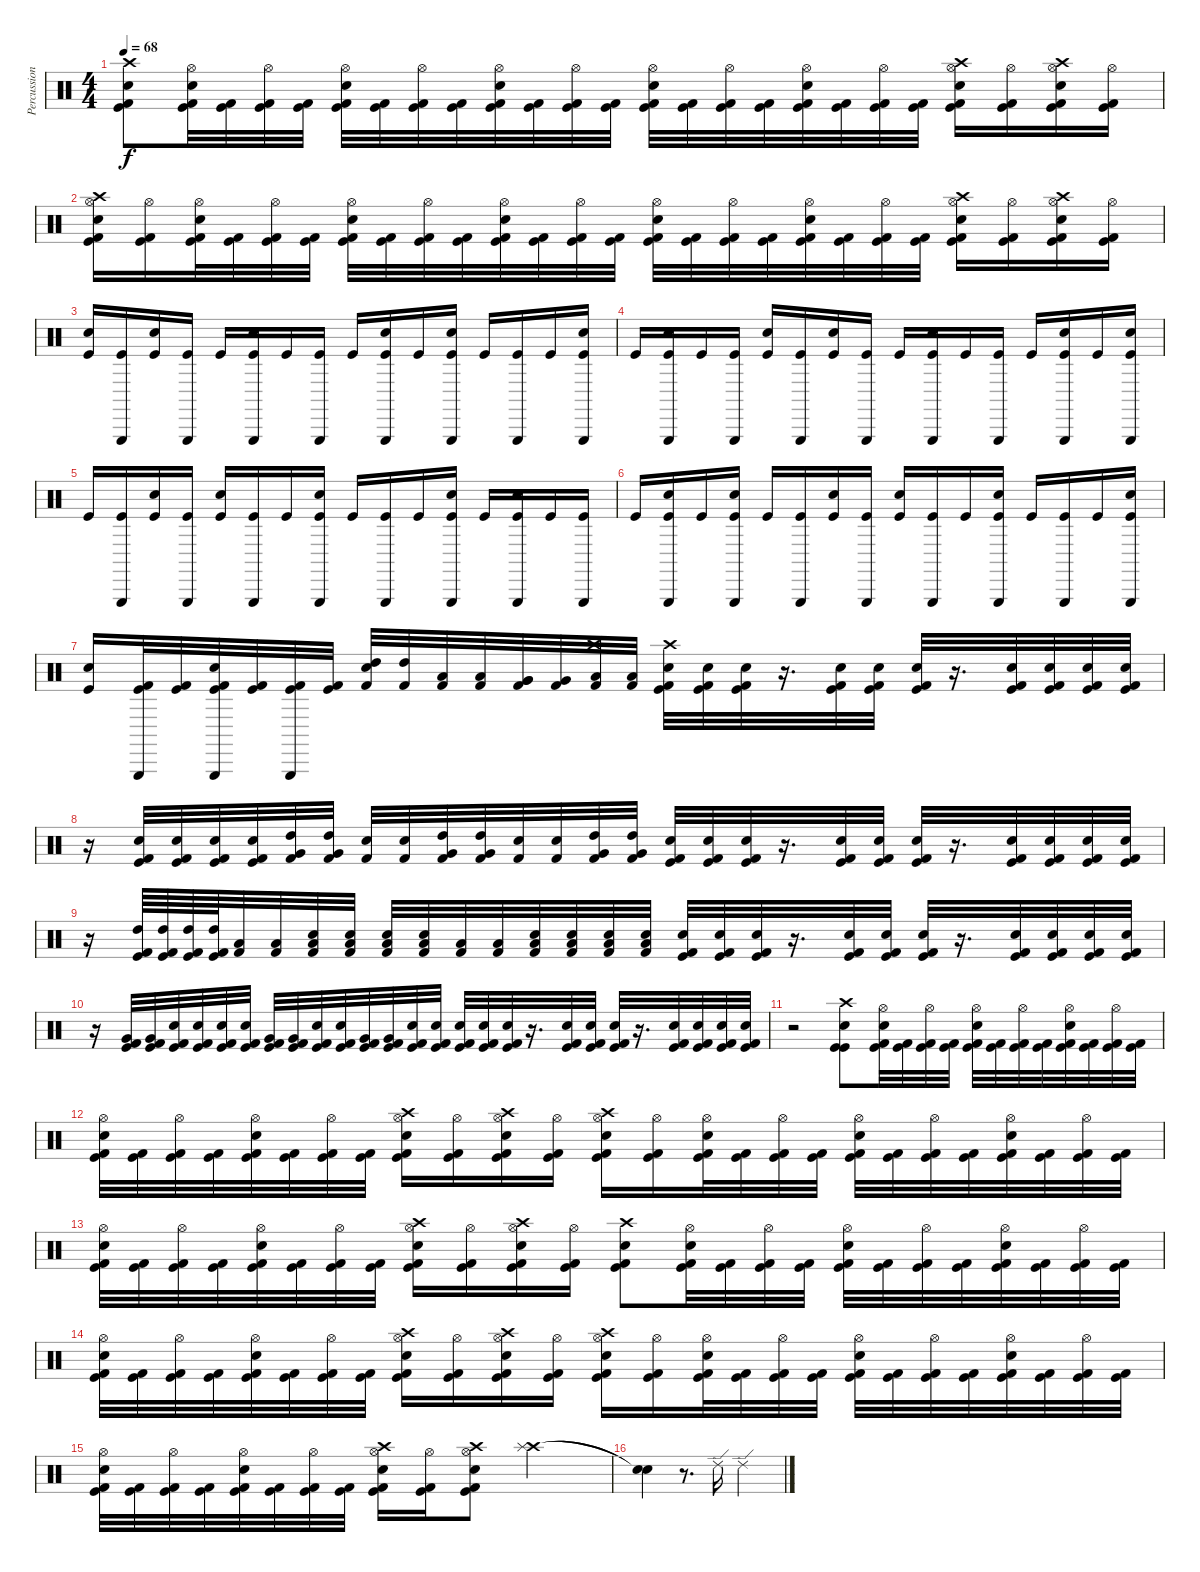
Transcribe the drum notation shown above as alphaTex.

\track ("Percussion" "Percussion") {instrument percussion}
\staff {score}
\articulation defaults
\ts (4 4)
\tempo 68
\clef neutral
\ks c
("Kick (hit)" "Kick (hit) 2" "Snare (hit) 2" "Crash high (hit)").8{dy f} ("Kick (hit)" "Kick (hit) 2" "Snare (hit) 2" "Hi-Hat (open)").32 ("Kick (hit)" "Kick (hit) 2").32 ("Kick (hit)" "Kick (hit) 2" "Hi-Hat (open)").32 ("Kick (hit)" "Kick (hit) 2").32 ("Kick (hit)" "Kick (hit) 2" "Snare (hit) 2" "Hi-Hat (open)").32 ("Kick (hit)" "Kick (hit) 2").32 ("Kick (hit)" "Kick (hit) 2" "Hi-Hat (open)").32 ("Kick (hit)" "Kick (hit) 2").32 ("Kick (hit)" "Kick (hit) 2" "Snare (hit) 2" "Hi-Hat (open)").32 ("Kick (hit)" "Kick (hit) 2").32 ("Kick (hit)" "Kick (hit) 2" "Hi-Hat (open)").32 ("Kick (hit)" "Kick (hit) 2").32 ("Kick (hit)" "Kick (hit) 2" "Snare (hit) 2" "Hi-Hat (open)").32 ("Kick (hit)" "Kick (hit) 2").32 ("Kick (hit)" "Kick (hit) 2" "Hi-Hat (open)").32 ("Kick (hit)" "Kick (hit) 2").32 ("Kick (hit)" "Kick (hit) 2" "Snare (hit) 2" "Hi-Hat (open)").32 ("Kick (hit)" "Kick (hit) 2").32 ("Kick (hit)" "Kick (hit) 2" "Hi-Hat (open)").32 ("Kick (hit)" "Kick (hit) 2").32 ("Kick (hit)" "Kick (hit) 2" "Snare (hit) 2" "Hi-Hat (open)" "Crash high (hit)").16 ("Kick (hit)" "Kick (hit) 2" "Hi-Hat (open)").16 ("Kick (hit)" "Kick (hit) 2" "Snare (hit) 2" "Hi-Hat (open)" "Crash high (hit)").16 ("Kick (hit)" "Kick (hit) 2" "Hi-Hat (open)").16 |
("Kick (hit)" "Kick (hit) 2" "Snare (hit) 2" "Hi-Hat (open)" "Crash high (hit)").16 ("Kick (hit)" "Kick (hit) 2" "Hi-Hat (open)").16 ("Kick (hit)" "Kick (hit) 2" "Snare (hit) 2" "Hi-Hat (open)").32 ("Kick (hit)" "Kick (hit) 2").32 ("Kick (hit)" "Kick (hit) 2" "Hi-Hat (open)").32 ("Kick (hit)" "Kick (hit) 2").32 ("Kick (hit)" "Kick (hit) 2" "Snare (hit) 2" "Hi-Hat (open)").32 ("Kick (hit)" "Kick (hit) 2").32 ("Kick (hit)" "Kick (hit) 2" "Hi-Hat (open)").32 ("Kick (hit)" "Kick (hit) 2").32 ("Kick (hit)" "Kick (hit) 2" "Snare (hit) 2" "Hi-Hat (open)").32 ("Kick (hit)" "Kick (hit) 2").32 ("Kick (hit)" "Kick (hit) 2" "Hi-Hat (open)").32 ("Kick (hit)" "Kick (hit) 2").32 ("Kick (hit)" "Kick (hit) 2" "Snare (hit) 2" "Hi-Hat (open)").32 ("Kick (hit)" "Kick (hit) 2").32 ("Kick (hit)" "Kick (hit) 2" "Hi-Hat (open)").32 ("Kick (hit)" "Kick (hit) 2").32 ("Kick (hit)" "Kick (hit) 2" "Snare (hit) 2" "Hi-Hat (open)").32 ("Kick (hit)" "Kick (hit) 2").32 ("Kick (hit)" "Kick (hit) 2" "Hi-Hat (open)").32 ("Kick (hit)" "Kick (hit) 2").32 ("Kick (hit)" "Kick (hit) 2" "Snare (hit) 2" "Hi-Hat (open)" "Crash high (hit)").16 ("Kick (hit)" "Kick (hit) 2" "Hi-Hat (open)").16 ("Kick (hit)" "Kick (hit) 2" "Snare (hit) 2" "Hi-Hat (open)" "Crash high (hit)").16 ("Kick (hit)" "Kick (hit) 2" "Hi-Hat (open)").16 |
\section ("" "")
("Kick (hit)" "Snare (hit) 2").16 ("Kick (hit)" "Triangle (hit)").16 ("Kick (hit)" "Snare (hit) 2").16 ("Kick (hit)" "Triangle (hit)").16 "Kick (hit)".16 ("Kick (hit)" "Snare (hit) 2" "Triangle (hit)").16 "Kick (hit)".16 ("Kick (hit)" "Triangle (hit)").16 "Kick (hit)".16 ("Kick (hit)" "Snare (hit) 2" "Triangle (hit)").16 "Kick (hit)".16 ("Kick (hit)" "Snare (hit) 2" "Triangle (hit)").16 "Kick (hit)".16 ("Kick (hit)" "Triangle (hit)").16 "Kick (hit)".16 ("Kick (hit)" "Snare (hit) 2" "Triangle (hit)").16 |
"Kick (hit)".16 ("Kick (hit)" "Snare (hit) 2" "Triangle (hit)").16 "Kick (hit)".16 ("Kick (hit)" "Triangle (hit)").16 ("Kick (hit)" "Snare (hit) 2").16 ("Kick (hit)" "Triangle (hit)").16 ("Kick (hit)" "Snare (hit) 2").16 ("Kick (hit)" "Triangle (hit)").16 "Kick (hit)".16 ("Kick (hit)" "Snare (hit) 2" "Triangle (hit)").16 "Kick (hit)".16 ("Kick (hit)" "Triangle (hit)").16 "Kick (hit)".16 ("Kick (hit)" "Snare (hit) 2" "Triangle (hit)").16 "Kick (hit)".16 ("Kick (hit)" "Snare (hit) 2" "Triangle (hit)").16 |
"Kick (hit)".16 ("Kick (hit)" "Triangle (hit)").16 ("Kick (hit)" "Snare (hit) 2").16 ("Kick (hit)" "Triangle (hit)").16 ("Kick (hit)" "Snare (hit) 2").16 ("Kick (hit)" "Triangle (hit)").16 "Kick (hit)".16 ("Kick (hit)" "Snare (hit) 2" "Triangle (hit)").16 "Kick (hit)".16 ("Kick (hit)" "Triangle (hit)").16 "Kick (hit)".16 ("Kick (hit)" "Snare (hit) 2" "Triangle (hit)").16 "Kick (hit)".16 ("Kick (hit)" "Snare (hit) 2" "Triangle (hit)").16 "Kick (hit)".16 ("Kick (hit)" "Triangle (hit)").16 |
"Kick (hit)".16 ("Kick (hit)" "Snare (hit) 2" "Triangle (hit)").16 "Kick (hit)".16 ("Kick (hit)" "Snare (hit) 2" "Triangle (hit)").16 "Kick (hit)".16 ("Kick (hit)" "Triangle (hit)").16 ("Kick (hit)" "Snare (hit) 2").16 ("Kick (hit)" "Triangle (hit)").16 ("Kick (hit)" "Snare (hit) 2").16 ("Kick (hit)" "Triangle (hit)").16 "Kick (hit)".16 ("Kick (hit)" "Snare (hit) 2" "Triangle (hit)").16 "Kick (hit)".16 ("Kick (hit)" "Triangle (hit)").16 "Kick (hit)".16 ("Kick (hit)" "Snare (hit) 2" "Triangle (hit)").16 |
("Kick (hit)" "Snare (hit) 2").16 ("Kick (hit)" "Kick (hit) 2" "Triangle (hit)").32 ("Kick (hit)" "Kick (hit) 2").32 ("Kick (hit)" "Kick (hit) 2" "Snare (hit) 2" "Triangle (hit)").32 ("Kick (hit)" "Kick (hit) 2").32 ("Kick (hit)" "Kick (hit) 2" "Triangle (hit)").32 ("Kick (hit)" "Kick (hit) 2").32 ("Kick (hit) 2" "Snare (hit) 2" "High Tom (hit)").32 ("Kick (hit) 2" "High Tom (hit)").32 ("Kick (hit) 2" "Low Tom (hit)").32 ("Kick (hit) 2" "Low Tom (hit)").32 ("Kick (hit) 2" "Very Low Tom (hit)" "Very Low Tom (hit)").32 ("Kick (hit) 2" "Very Low Tom (hit)").32 ("Kick (hit) 2" "Low Floor Tom (hit)" "Crash high (hit)").32 ("Kick (hit) 2" "Low Floor Tom (hit)").32 ("Kick (hit)" "Kick (hit) 2" "Snare (hit) 2" "Crash high (hit)").32 ("Kick (hit)" "Kick (hit) 2" "Snare (hit) 2").32 ("Kick (hit)" "Kick (hit) 2" "Snare (hit) 2").32 r.16{d} ("Kick (hit)" "Kick (hit) 2" "Snare (hit) 2").32 ("Kick (hit)" "Kick (hit) 2" "Snare (hit) 2").32 ("Kick (hit)" "Kick (hit) 2" "Snare (hit) 2").32 r.16{d} ("Kick (hit)" "Kick (hit) 2" "Snare (hit) 2").32 ("Kick (hit)" "Kick (hit) 2" "Snare (hit) 2").32 ("Kick (hit)" "Kick (hit) 2" "Snare (hit) 2").32 ("Kick (hit)" "Kick (hit) 2" "Snare (hit) 2").32 |
r.16 ("Kick (hit)" "Kick (hit) 2" "Snare (hit) 2").32 ("Kick (hit)" "Kick (hit) 2" "Snare (hit) 2").32 ("Kick (hit)" "Kick (hit) 2" "Snare (hit) 2").32 ("Kick (hit)" "Kick (hit) 2" "Snare (hit) 2").32 ("Kick (hit) 2" "Very Low Tom (hit)" "High Tom (hit)").32 ("Kick (hit) 2" "Very Low Tom (hit)" "High Tom (hit)").32 ("Kick (hit) 2" "Snare (hit) 2").32 ("Kick (hit) 2" "Snare (hit) 2").32 ("Kick (hit) 2" "Very Low Tom (hit)" "High Tom (hit)").32 ("Kick (hit) 2" "Very Low Tom (hit)" "High Tom (hit)").32 ("Kick (hit) 2" "Snare (hit) 2").32 ("Kick (hit) 2" "Snare (hit) 2").32 ("Kick (hit) 2" "Very Low Tom (hit)" "High Tom (hit)").32 ("Kick (hit) 2" "Very Low Tom (hit)" "High Tom (hit)").32 ("Kick (hit)" "Kick (hit) 2" "Snare (hit) 2").32 ("Kick (hit)" "Kick (hit) 2" "Snare (hit) 2").32 ("Kick (hit)" "Kick (hit) 2" "Snare (hit) 2").32 r.16{d} ("Kick (hit)" "Kick (hit) 2" "Snare (hit) 2").32 ("Kick (hit)" "Kick (hit) 2" "Snare (hit) 2").32 ("Kick (hit)" "Kick (hit) 2" "Snare (hit) 2").32 r.16{d} ("Kick (hit)" "Kick (hit) 2" "Snare (hit) 2").32 ("Kick (hit)" "Kick (hit) 2" "Snare (hit) 2").32 ("Kick (hit)" "Kick (hit) 2" "Snare (hit) 2").32 ("Kick (hit)" "Kick (hit) 2" "Snare (hit) 2").32 |
r.16 ("Kick (hit)" "Kick (hit) 2" "High Tom (hit)").64 ("Kick (hit)" "Kick (hit) 2" "High Tom (hit)").64 ("Kick (hit)" "Kick (hit) 2" "High Tom (hit)").64 ("Kick (hit)" "Kick (hit) 2" "High Tom (hit)").64 ("Kick (hit) 2" "Low Tom (hit)").32 ("Kick (hit) 2" "Low Tom (hit)").32 ("Kick (hit) 2" "Snare (hit) 2" "Low Tom (hit)").32 ("Kick (hit) 2" "Snare (hit) 2" "Low Tom (hit)").32 ("Kick (hit) 2" "Snare (hit) 2" "Low Tom (hit)").32 ("Kick (hit) 2" "Snare (hit) 2" "Low Tom (hit)").32 ("Kick (hit) 2" "Low Tom (hit)").32 ("Kick (hit) 2" "Low Tom (hit)").32 ("Kick (hit) 2" "Snare (hit) 2" "Low Tom (hit)").32 ("Kick (hit) 2" "Snare (hit) 2" "Low Tom (hit)").32 ("Kick (hit) 2" "Snare (hit) 2" "Low Tom (hit)").32 ("Kick (hit) 2" "Snare (hit) 2" "Low Tom (hit)").32 ("Kick (hit)" "Kick (hit) 2" "Snare (hit) 2").32 ("Kick (hit)" "Kick (hit) 2" "Snare (hit) 2").32 ("Kick (hit)" "Kick (hit) 2" "Snare (hit) 2").32 r.16{d} ("Kick (hit)" "Kick (hit) 2" "Snare (hit) 2").32 ("Kick (hit)" "Kick (hit) 2" "Snare (hit) 2").32 ("Kick (hit)" "Kick (hit) 2" "Snare (hit) 2").32 r.16{d} ("Kick (hit)" "Kick (hit) 2" "Snare (hit) 2").32 ("Kick (hit)" "Kick (hit) 2" "Snare (hit) 2").32 ("Kick (hit)" "Kick (hit) 2" "Snare (hit) 2").32 ("Kick (hit)" "Kick (hit) 2" "Snare (hit) 2").32 |
r.16 ("Kick (hit)" "Kick (hit) 2" "Very Low Tom (hit)").32 ("Kick (hit)" "Kick (hit) 2" "Very Low Tom (hit)").32 ("Kick (hit)" "Kick (hit) 2" "Snare (hit) 2").32 ("Kick (hit)" "Kick (hit) 2" "Snare (hit) 2").32 ("Kick (hit)" "Kick (hit) 2" "Snare (hit) 2").32 ("Kick (hit)" "Kick (hit) 2" "Snare (hit) 2").32 ("Kick (hit)" "Kick (hit) 2" "Very Low Tom (hit)").32 ("Kick (hit)" "Kick (hit) 2" "Very Low Tom (hit)").32 ("Kick (hit)" "Kick (hit) 2" "Snare (hit) 2").32 ("Kick (hit)" "Kick (hit) 2" "Snare (hit) 2").32 ("Kick (hit)" "Kick (hit) 2" "Very Low Tom (hit)").32 ("Kick (hit)" "Kick (hit) 2" "Very Low Tom (hit)").32 ("Kick (hit)" "Kick (hit) 2" "Snare (hit) 2").32 ("Kick (hit)" "Kick (hit) 2" "Snare (hit) 2").32 ("Kick (hit)" "Kick (hit) 2" "Snare (hit) 2").32 ("Kick (hit)" "Kick (hit) 2" "Snare (hit) 2").32 ("Kick (hit)" "Kick (hit) 2" "Snare (hit) 2").32 r.16{d} ("Kick (hit)" "Kick (hit) 2" "Snare (hit) 2").32 ("Kick (hit)" "Kick (hit) 2" "Snare (hit) 2").32 ("Kick (hit)" "Kick (hit) 2" "Snare (hit) 2").32 r.16{d} ("Kick (hit)" "Kick (hit) 2" "Snare (hit) 2").32 ("Kick (hit)" "Kick (hit) 2" "Snare (hit) 2").32 ("Kick (hit)" "Kick (hit) 2" "Snare (hit) 2").32 ("Kick (hit)" "Kick (hit) 2" "Snare (hit) 2").32 |
\section ("" "")
r.2 ("Kick (hit)" "Kick (hit)" "Snare (hit) 2" "Crash high (hit)").8 ("Kick (hit)" "Kick (hit) 2" "Snare (hit) 2" "Hi-Hat (open)").32 ("Kick (hit)" "Kick (hit) 2").32 ("Kick (hit)" "Kick (hit) 2" "Hi-Hat (open)").32 ("Kick (hit)" "Kick (hit) 2").32 ("Kick (hit)" "Kick (hit) 2" "Snare (hit) 2" "Hi-Hat (open)").32 ("Kick (hit)" "Kick (hit) 2").32 ("Kick (hit)" "Kick (hit) 2" "Hi-Hat (open)").32 ("Kick (hit)" "Kick (hit) 2").32 ("Kick (hit)" "Kick (hit) 2" "Snare (hit) 2" "Hi-Hat (open)").32 ("Kick (hit)" "Kick (hit) 2").32 ("Kick (hit)" "Kick (hit) 2" "Hi-Hat (open)").32 ("Kick (hit)" "Kick (hit) 2").32 |
("Kick (hit)" "Kick (hit) 2" "Snare (hit) 2" "Hi-Hat (open)").32 ("Kick (hit)" "Kick (hit) 2").32 ("Kick (hit)" "Kick (hit) 2" "Hi-Hat (open)").32 ("Kick (hit)" "Kick (hit) 2").32 ("Kick (hit)" "Kick (hit) 2" "Snare (hit) 2" "Hi-Hat (open)").32 ("Kick (hit)" "Kick (hit) 2").32 ("Kick (hit)" "Kick (hit) 2" "Hi-Hat (open)").32 ("Kick (hit)" "Kick (hit) 2").32 ("Kick (hit)" "Kick (hit) 2" "Snare (hit) 2" "Hi-Hat (open)" "Crash high (hit)").16 ("Kick (hit)" "Kick (hit) 2" "Hi-Hat (open)").16 ("Kick (hit)" "Kick (hit) 2" "Snare (hit) 2" "Hi-Hat (open)" "Crash high (hit)").16 ("Kick (hit)" "Kick (hit) 2" "Hi-Hat (open)").16 ("Kick (hit)" "Kick (hit) 2" "Snare (hit) 2" "Hi-Hat (open)" "Crash high (hit)").16 ("Kick (hit)" "Kick (hit) 2" "Hi-Hat (open)").16 ("Kick (hit)" "Kick (hit) 2" "Snare (hit) 2" "Hi-Hat (open)").32 ("Kick (hit)" "Kick (hit) 2").32 ("Kick (hit)" "Kick (hit) 2" "Hi-Hat (open)").32 ("Kick (hit)" "Kick (hit) 2").32 ("Kick (hit)" "Kick (hit) 2" "Snare (hit) 2" "Hi-Hat (open)").32 ("Kick (hit)" "Kick (hit) 2").32 ("Kick (hit)" "Kick (hit) 2" "Hi-Hat (open)").32 ("Kick (hit)" "Kick (hit) 2").32 ("Kick (hit)" "Kick (hit) 2" "Snare (hit) 2" "Hi-Hat (open)").32 ("Kick (hit)" "Kick (hit) 2").32 ("Kick (hit)" "Kick (hit) 2" "Hi-Hat (open)").32 ("Kick (hit)" "Kick (hit) 2").32 |
("Kick (hit)" "Kick (hit) 2" "Snare (hit) 2" "Hi-Hat (open)").32 ("Kick (hit)" "Kick (hit) 2").32 ("Kick (hit)" "Kick (hit) 2" "Hi-Hat (open)").32 ("Kick (hit)" "Kick (hit) 2").32 ("Kick (hit)" "Kick (hit) 2" "Snare (hit) 2" "Hi-Hat (open)").32 ("Kick (hit)" "Kick (hit) 2").32 ("Kick (hit)" "Kick (hit) 2" "Hi-Hat (open)").32 ("Kick (hit)" "Kick (hit) 2").32 ("Kick (hit)" "Kick (hit) 2" "Snare (hit) 2" "Hi-Hat (open)" "Crash high (hit)").16 ("Kick (hit)" "Kick (hit) 2" "Hi-Hat (open)").16 ("Kick (hit)" "Kick (hit) 2" "Snare (hit) 2" "Hi-Hat (open)" "Crash high (hit)").16 ("Kick (hit)" "Kick (hit) 2" "Hi-Hat (open)").16 ("Kick (hit)" "Kick (hit) 2" "Snare (hit) 2" "Crash high (hit)").8 ("Kick (hit)" "Kick (hit) 2" "Snare (hit) 2" "Hi-Hat (open)").32 ("Kick (hit)" "Kick (hit) 2").32 ("Kick (hit)" "Kick (hit) 2" "Hi-Hat (open)").32 ("Kick (hit)" "Kick (hit) 2").32 ("Kick (hit)" "Kick (hit) 2" "Snare (hit) 2" "Hi-Hat (open)").32 ("Kick (hit)" "Kick (hit) 2").32 ("Kick (hit)" "Kick (hit) 2" "Hi-Hat (open)").32 ("Kick (hit)" "Kick (hit) 2").32 ("Kick (hit)" "Kick (hit) 2" "Snare (hit) 2" "Hi-Hat (open)").32 ("Kick (hit)" "Kick (hit) 2").32 ("Kick (hit)" "Kick (hit) 2" "Hi-Hat (open)").32 ("Kick (hit)" "Kick (hit) 2").32 |
("Kick (hit)" "Kick (hit) 2" "Snare (hit) 2" "Hi-Hat (open)").32 ("Kick (hit)" "Kick (hit) 2").32 ("Kick (hit)" "Kick (hit) 2" "Hi-Hat (open)").32 ("Kick (hit)" "Kick (hit) 2").32 ("Kick (hit)" "Kick (hit) 2" "Snare (hit) 2" "Hi-Hat (open)").32 ("Kick (hit)" "Kick (hit) 2").32 ("Kick (hit)" "Kick (hit) 2" "Hi-Hat (open)").32 ("Kick (hit)" "Kick (hit) 2").32 ("Kick (hit)" "Kick (hit) 2" "Snare (hit) 2" "Hi-Hat (open)" "Crash high (hit)").16 ("Kick (hit)" "Kick (hit) 2" "Hi-Hat (open)").16 ("Kick (hit)" "Kick (hit) 2" "Snare (hit) 2" "Hi-Hat (open)" "Crash high (hit)").16 ("Kick (hit)" "Kick (hit) 2" "Hi-Hat (open)").16 ("Kick (hit)" "Kick (hit) 2" "Snare (hit) 2" "Hi-Hat (open)" "Crash high (hit)").16 ("Kick (hit)" "Kick (hit) 2" "Hi-Hat (open)").16 ("Kick (hit)" "Kick (hit) 2" "Snare (hit) 2" "Hi-Hat (open)").32 ("Kick (hit)" "Kick (hit) 2").32 ("Kick (hit)" "Kick (hit) 2" "Hi-Hat (open)").32 ("Kick (hit)" "Kick (hit) 2").32 ("Kick (hit)" "Kick (hit) 2" "Snare (hit) 2" "Hi-Hat (open)").32 ("Kick (hit)" "Kick (hit) 2").32 ("Kick (hit)" "Kick (hit) 2" "Hi-Hat (open)").32 ("Kick (hit)" "Kick (hit) 2").32 ("Kick (hit)" "Kick (hit) 2" "Snare (hit) 2" "Hi-Hat (open)").32 ("Kick (hit)" "Kick (hit) 2").32 ("Kick (hit)" "Kick (hit) 2" "Hi-Hat (open)").32 ("Kick (hit)" "Kick (hit) 2").32 |
("Kick (hit)" "Kick (hit) 2" "Snare (hit) 2" "Hi-Hat (open)").32 ("Kick (hit)" "Kick (hit) 2").32 ("Kick (hit)" "Kick (hit) 2" "Hi-Hat (open)").32 ("Kick (hit)" "Kick (hit) 2").32 ("Kick (hit)" "Kick (hit) 2" "Snare (hit) 2" "Hi-Hat (open)").32 ("Kick (hit)" "Kick (hit) 2").32 ("Kick (hit)" "Kick (hit) 2" "Hi-Hat (open)").32 ("Kick (hit)" "Kick (hit) 2").32 ("Kick (hit)" "Kick (hit) 2" "Snare (hit) 2" "Hi-Hat (open)" "Crash high (hit)").16 ("Kick (hit)" "Kick (hit) 2" "Hi-Hat (open)").16 ("Kick (hit)" "Kick (hit) 2" "Snare (hit) 2" "Hi-Hat (open)" "Crash high (hit)").8 ("Crash high (hit)" "Splash (hit)").2 |
\section ("" "")
("Snare (hit)"{t} "Snare (hit)"{t}).4 r.8{d} "Ride (edge) 2".16 "Ride (edge) 2".2
